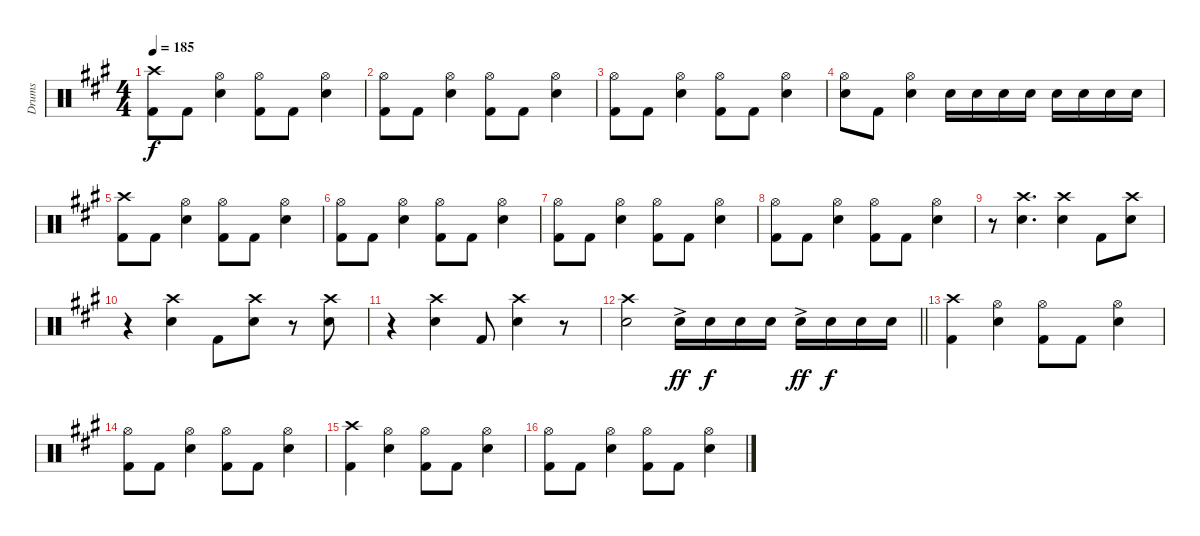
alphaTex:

\track ("Drums" "Drums") {instrument percussion}
\staff {score}
\articulation defaults
\ts (4 4)
\tempo 185
\clef neutral
\ks f#minor
("Crash high (hit)" "Kick (hit) 2").8{dy f} "Kick (hit) 2".8 ("Hi-Hat (open)" "Electric Snare (hit)").4 ("Hi-Hat (open)" "Kick (hit) 2").8 "Kick (hit) 2".8 ("Hi-Hat (open)" "Electric Snare (hit)").4 |
("Hi-Hat (open)" "Kick (hit) 2").8 "Kick (hit) 2".8 ("Hi-Hat (open)" "Electric Snare (hit)").4 ("Hi-Hat (open)" "Kick (hit) 2").8 "Kick (hit) 2".8 ("Hi-Hat (open)" "Electric Snare (hit)").4 |
("Hi-Hat (open)" "Kick (hit) 2").8 "Kick (hit) 2".8 ("Hi-Hat (open)" "Electric Snare (hit)").4 ("Hi-Hat (open)" "Kick (hit) 2").8 "Kick (hit) 2".8 ("Hi-Hat (open)" "Electric Snare (hit)").4 |
("Hi-Hat (open)" "Electric Snare (hit)").8 "Kick (hit) 2".8 ("Hi-Hat (open)" "Electric Snare (hit)").4 "Electric Snare (hit)".16 "Electric Snare (hit)".16 "Electric Snare (hit)".16 "Electric Snare (hit)".16 "Electric Snare (hit)".16 "Electric Snare (hit)".16 "Electric Snare (hit)".16 "Electric Snare (hit)".16 |
("Crash high (hit)" "Kick (hit) 2").8 "Kick (hit) 2".8 ("Hi-Hat (open)" "Electric Snare (hit)").4 ("Hi-Hat (open)" "Kick (hit) 2").8 "Kick (hit) 2".8 ("Hi-Hat (open)" "Electric Snare (hit)").4 |
("Hi-Hat (open)" "Kick (hit) 2").8 "Kick (hit) 2".8 ("Hi-Hat (open)" "Electric Snare (hit)").4 ("Hi-Hat (open)" "Kick (hit) 2").8 "Kick (hit) 2".8 ("Hi-Hat (open)" "Electric Snare (hit)").4 |
("Hi-Hat (open)" "Kick (hit) 2").8 "Kick (hit) 2".8 ("Hi-Hat (open)" "Electric Snare (hit)").4 ("Hi-Hat (open)" "Kick (hit) 2").8 "Kick (hit) 2".8 ("Hi-Hat (open)" "Electric Snare (hit)").4 |
("Hi-Hat (open)" "Kick (hit) 2").8 "Kick (hit) 2".8 ("Hi-Hat (open)" "Electric Snare (hit)").4 ("Hi-Hat (open)" "Kick (hit) 2").8 "Kick (hit) 2".8 ("Hi-Hat (open)" "Electric Snare (hit)").4 |
r.8 ("Crash high (hit)" "Electric Snare (hit)").4{d} ("Crash high (hit)" "Electric Snare (hit)").4 "Kick (hit) 2".8 ("Crash high (hit)" "Electric Snare (hit)").8 |
r.4 ("Crash high (hit)" "Electric Snare (hit)").4 "Kick (hit) 2".8 ("Crash high (hit)" "Electric Snare (hit)").8 r.8 ("Crash high (hit)" "Electric Snare (hit)").8 |
r.4 ("Crash high (hit)" "Electric Snare (hit)").4 "Kick (hit) 2".8 ("Crash high (hit)" "Electric Snare (hit)").4 r.8 |
\barLineRight lightlight
("Crash high (hit)" "Electric Snare (hit)").2 "Electric Snare (hit)"{ac}.16{dy ff} "Electric Snare (hit)".16{dy f} "Electric Snare (hit)".16 "Electric Snare (hit)".16 "Electric Snare (hit)"{ac}.16{dy ff} "Electric Snare (hit)".16{dy f} "Electric Snare (hit)".16 "Electric Snare (hit)".16 |
("Crash high (hit)" "Kick (hit) 2").4 ("Hi-Hat (open)" "Electric Snare (hit)").4 ("Hi-Hat (open)" "Kick (hit) 2").8 "Kick (hit) 2".8 ("Hi-Hat (open)" "Electric Snare (hit)").4 |
("Hi-Hat (open)" "Kick (hit) 2").8 "Kick (hit) 2".8 ("Hi-Hat (open)" "Electric Snare (hit)").4 ("Hi-Hat (open)" "Kick (hit) 2").8 "Kick (hit) 2".8 ("Hi-Hat (open)" "Electric Snare (hit)").4 |
("Crash high (hit)" "Kick (hit) 2").4 ("Hi-Hat (open)" "Electric Snare (hit)").4 ("Hi-Hat (open)" "Kick (hit) 2").8 "Kick (hit) 2".8 ("Hi-Hat (open)" "Electric Snare (hit)").4 |
("Hi-Hat (open)" "Kick (hit) 2").8 "Kick (hit) 2".8 ("Hi-Hat (open)" "Electric Snare (hit)").4 ("Hi-Hat (open)" "Kick (hit) 2").8 "Kick (hit) 2".8 ("Hi-Hat (open)" "Electric Snare (hit)").4
